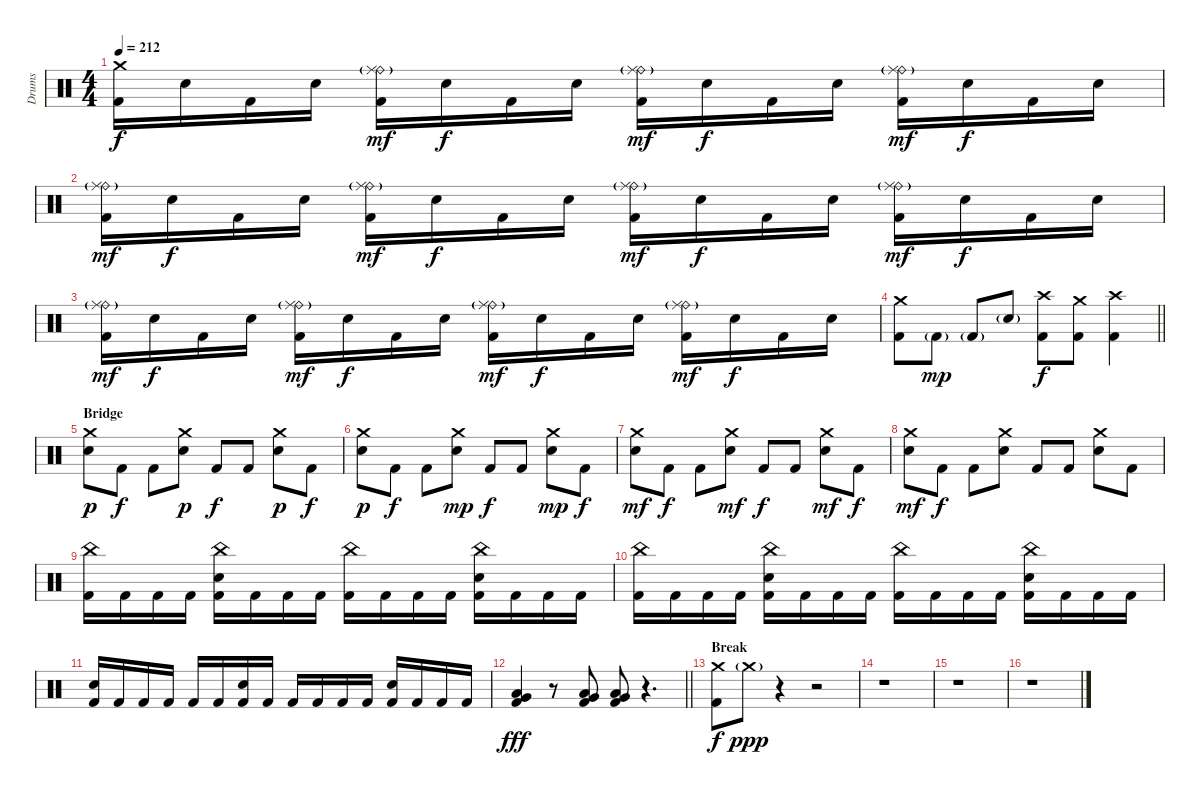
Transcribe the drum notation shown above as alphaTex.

\track ("Drums" "Drums") {instrument percussion}
\staff {score}
\articulation defaults
\ts (4 4)
\tempo 212
\clef neutral
\ks c
("Crash medium (hit)" "Kick (hit) 2").16{dy f} "Electric Snare (hit)".16 "Kick (hit) 2".16 "Electric Snare (hit)".16 ("Ride (bell)"{g} "Ride (middle)" "Kick (hit) 2").16{dy mf} "Electric Snare (hit)".16{dy f} "Kick (hit) 2".16 "Electric Snare (hit)".16 ("Ride (bell)"{g} "Ride (middle)" "Kick (hit) 2").16{dy mf} "Electric Snare (hit)".16{dy f} "Kick (hit) 2".16 "Electric Snare (hit)".16 ("Ride (bell)"{g} "Ride (middle)" "Kick (hit) 2").16{dy mf} "Electric Snare (hit)".16{dy f} "Kick (hit) 2".16 "Electric Snare (hit)".16 |
("Ride (bell)"{g} "Ride (middle)" "Kick (hit) 2").16{dy mf} "Electric Snare (hit)".16{dy f} "Kick (hit) 2".16 "Electric Snare (hit)".16 ("Ride (bell)"{g} "Ride (middle)" "Kick (hit) 2").16{dy mf} "Electric Snare (hit)".16{dy f} "Kick (hit) 2".16 "Electric Snare (hit)".16 ("Ride (bell)"{g} "Ride (middle)" "Kick (hit) 2").16{dy mf} "Electric Snare (hit)".16{dy f} "Kick (hit) 2".16 "Electric Snare (hit)".16 ("Ride (bell)"{g} "Ride (middle)" "Kick (hit) 2").16{dy mf} "Electric Snare (hit)".16{dy f} "Kick (hit) 2".16 "Electric Snare (hit)".16 |
("Ride (bell)"{g} "Ride (middle)" "Kick (hit) 2").16{dy mf} "Electric Snare (hit)".16{dy f} "Kick (hit) 2".16 "Electric Snare (hit)".16 ("Ride (bell)"{g} "Ride (middle)" "Kick (hit) 2").16{dy mf} "Electric Snare (hit)".16{dy f} "Kick (hit) 2".16 "Electric Snare (hit)".16 ("Ride (bell)"{g} "Ride (middle)" "Kick (hit) 2").16{dy mf} "Electric Snare (hit)".16{dy f} "Kick (hit) 2".16 "Electric Snare (hit)".16 ("Ride (bell)"{g} "Ride (middle)" "Kick (hit) 2").16{dy mf} "Electric Snare (hit)".16{dy f} "Kick (hit) 2".16 "Electric Snare (hit)".16 |
\barLineRight lightlight
("Crash medium (hit)" "Kick (hit) 2").8 "Kick (hit) 2"{g}.8{dy mp} "Kick (hit) 2"{g}.8 "Electric Snare (hit)"{g}.8 ("Crash high (hit)" "Kick (hit) 2").8{dy f} ("Crash medium (hit)" "Kick (hit) 2").8 ("Crash high (hit)" "Kick (hit) 2").4 |
\section ("" "Bridge")
("Crash medium (hit)" "Electric Snare (hit)").8{dy p} "Kick (hit) 2".8{dy f} "Kick (hit) 2".8 ("Crash medium (hit)" "Electric Snare (hit)").8{dy p} "Kick (hit) 2".8{dy f} "Kick (hit) 2".8 ("Crash medium (hit)" "Electric Snare (hit)").8{dy p} "Kick (hit) 2".8{dy f} |
("Crash medium (hit)" "Electric Snare (hit)").8{dy p} "Kick (hit) 2".8{dy f} "Kick (hit) 2".8 ("Crash medium (hit)" "Electric Snare (hit)").8{dy mp} "Kick (hit) 2".8{dy f} "Kick (hit) 2".8 ("Crash medium (hit)" "Electric Snare (hit)").8{dy mp} "Kick (hit) 2".8{dy f} |
("Crash medium (hit)" "Electric Snare (hit)").8{dy mf} "Kick (hit) 2".8{dy f} "Kick (hit) 2".8 ("Crash medium (hit)" "Electric Snare (hit)").8{dy mf} "Kick (hit) 2".8{dy f} "Kick (hit) 2".8 ("Crash medium (hit)" "Electric Snare (hit)").8{dy mf} "Kick (hit) 2".8{dy f} |
("Crash medium (hit)" "Electric Snare (hit)").8{dy mf} "Kick (hit) 2".8{dy f} "Kick (hit) 2".8 ("Crash medium (hit)" "Electric Snare (hit)").8 "Kick (hit) 2".8 "Kick (hit) 2".8 ("Crash medium (hit)" "Electric Snare (hit)").8 "Kick (hit) 2".8 |
("China (hit)" "Kick (hit) 2").16 "Kick (hit) 2".16 "Kick (hit) 2".16 "Kick (hit) 2".16 ("China (hit)" "Electric Snare (hit)" "Kick (hit) 2").16 "Kick (hit) 2".16 "Kick (hit) 2".16 "Kick (hit) 2".16 ("China (hit)" "Kick (hit) 2").16 "Kick (hit) 2".16 "Kick (hit) 2".16 "Kick (hit) 2".16 ("China (hit)" "Electric Snare (hit)" "Kick (hit) 2").16 "Kick (hit) 2".16 "Kick (hit) 2".16 "Kick (hit) 2".16 |
("China (hit)" "Kick (hit) 2").16 "Kick (hit) 2".16 "Kick (hit) 2".16 "Kick (hit) 2".16 ("China (hit)" "Electric Snare (hit)" "Kick (hit) 2").16 "Kick (hit) 2".16 "Kick (hit) 2".16 "Kick (hit) 2".16 ("China (hit)" "Kick (hit) 2").16 "Kick (hit) 2".16 "Kick (hit) 2".16 "Kick (hit) 2".16 ("China (hit)" "Electric Snare (hit)" "Kick (hit) 2").16 "Kick (hit) 2".16 "Kick (hit) 2".16 "Kick (hit) 2".16 |
("Electric Snare (hit)" "Kick (hit) 2").16 "Kick (hit) 2".16 "Kick (hit) 2".16 "Kick (hit) 2".16 "Kick (hit) 2".16 "Kick (hit) 2".16 ("Electric Snare (hit)" "Kick (hit) 2").16 "Kick (hit) 2".16 "Kick (hit) 2".16 "Kick (hit) 2".16 "Kick (hit) 2".16 "Kick (hit) 2".16 ("Electric Snare (hit)" "Kick (hit) 2").16 "Kick (hit) 2".16 "Kick (hit) 2".16 "Kick (hit) 2".16 |
\barLineRight lightlight
("Low Tom (hit)" "Very Low Tom (hit)" "Kick (hit) 2").4{dy fff} r.8 ("Low Floor Tom (hit)" "Very Low Tom (hit)" "Kick (hit) 2").8 ("Low Tom (hit)" "Very Low Tom (hit)" "Kick (hit) 2").8 r.4{d} |
\section ("" "Break")
("Crash medium (hit)" "Kick (hit) 2").8{dy f} "Crash medium (hit)"{g}.8{dy ppp} r.4 r.2 |
r.1 |
r.1 |
r.1
